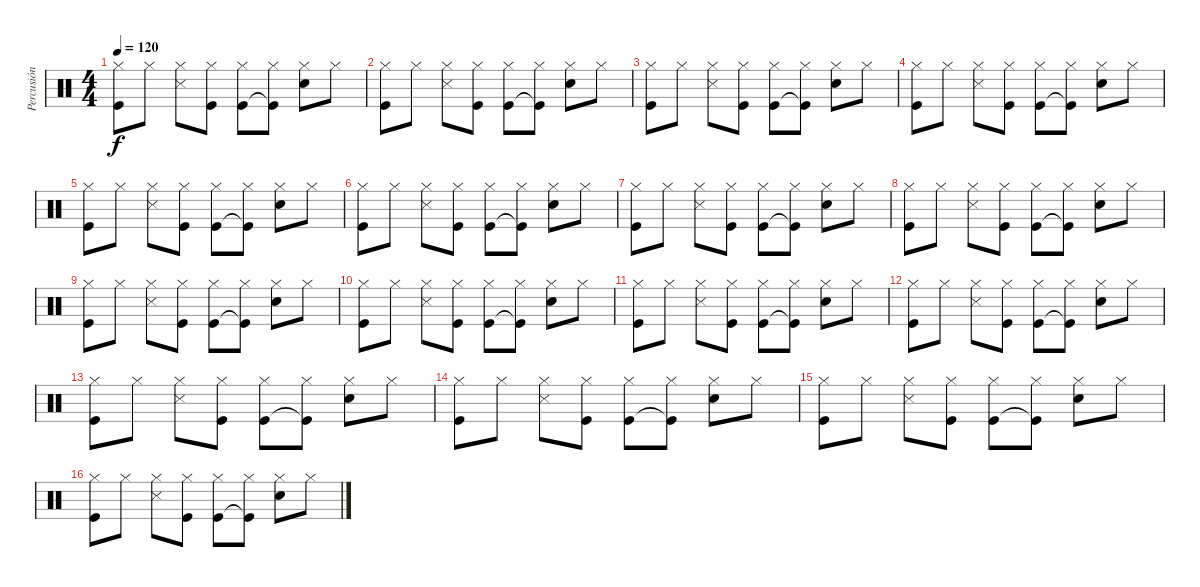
\track ("Percusión" "Percusión") {instrument percussion}
\staff {score}
\articulation defaults
\ts (4 4)
\tempo 120
\clef neutral
\ks c
("Hi-Hat (closed)" "Kick (hit)").8{dy f} "Hi-Hat (closed)".8 ("Hi-Hat (closed)" "Snare (side stick) 3").8 ("Hi-Hat (closed)" "Kick (hit)").8 ("Hi-Hat (closed)" "Kick (hit)").8 ("Hi-Hat (closed)" "Kick (hit)"{t}).8 ("Hi-Hat (closed)" "Snare (hit) 2").8 "Hi-Hat (closed)".8 |
("Hi-Hat (closed)" "Kick (hit)").8 "Hi-Hat (closed)".8 ("Hi-Hat (closed)" "Snare (side stick) 3").8 ("Hi-Hat (closed)" "Kick (hit)").8 ("Hi-Hat (closed)" "Kick (hit)").8 ("Hi-Hat (closed)" "Kick (hit)"{t}).8 ("Hi-Hat (closed)" "Snare (hit) 2").8 "Hi-Hat (closed)".8 |
("Hi-Hat (closed)" "Kick (hit)").8 "Hi-Hat (closed)".8 ("Hi-Hat (closed)" "Snare (side stick) 3").8 ("Hi-Hat (closed)" "Kick (hit)").8 ("Hi-Hat (closed)" "Kick (hit)").8 ("Hi-Hat (closed)" "Kick (hit)"{t}).8 ("Hi-Hat (closed)" "Snare (hit) 2").8 "Hi-Hat (closed)".8 |
("Hi-Hat (closed)" "Kick (hit)").8 "Hi-Hat (closed)".8 ("Hi-Hat (closed)" "Snare (side stick) 3").8 ("Hi-Hat (closed)" "Kick (hit)").8 ("Hi-Hat (closed)" "Kick (hit)").8 ("Hi-Hat (closed)" "Kick (hit)"{t}).8 ("Hi-Hat (closed)" "Snare (hit) 2").8 "Hi-Hat (closed)".8 |
("Hi-Hat (closed)" "Kick (hit)").8 "Hi-Hat (closed)".8 ("Hi-Hat (closed)" "Snare (side stick) 3").8 ("Hi-Hat (closed)" "Kick (hit)").8 ("Hi-Hat (closed)" "Kick (hit)").8 ("Hi-Hat (closed)" "Kick (hit)"{t}).8 ("Hi-Hat (closed)" "Snare (hit) 2").8 "Hi-Hat (closed)".8 |
("Hi-Hat (closed)" "Kick (hit)").8 "Hi-Hat (closed)".8 ("Hi-Hat (closed)" "Snare (side stick) 3").8 ("Hi-Hat (closed)" "Kick (hit)").8 ("Hi-Hat (closed)" "Kick (hit)").8 ("Hi-Hat (closed)" "Kick (hit)"{t}).8 ("Hi-Hat (closed)" "Snare (hit) 2").8 "Hi-Hat (closed)".8 |
("Hi-Hat (closed)" "Kick (hit)").8 "Hi-Hat (closed)".8 ("Hi-Hat (closed)" "Snare (side stick) 3").8 ("Hi-Hat (closed)" "Kick (hit)").8 ("Hi-Hat (closed)" "Kick (hit)").8 ("Hi-Hat (closed)" "Kick (hit)"{t}).8 ("Hi-Hat (closed)" "Snare (hit) 2").8 "Hi-Hat (closed)".8 |
("Hi-Hat (closed)" "Kick (hit)").8 "Hi-Hat (closed)".8 ("Hi-Hat (closed)" "Snare (side stick) 3").8 ("Hi-Hat (closed)" "Kick (hit)").8 ("Hi-Hat (closed)" "Kick (hit)").8 ("Hi-Hat (closed)" "Kick (hit)"{t}).8 ("Hi-Hat (closed)" "Snare (hit) 2").8 "Hi-Hat (closed)".8 |
("Hi-Hat (closed)" "Kick (hit)").8 "Hi-Hat (closed)".8 ("Hi-Hat (closed)" "Snare (side stick) 3").8 ("Hi-Hat (closed)" "Kick (hit)").8 ("Hi-Hat (closed)" "Kick (hit)").8 ("Hi-Hat (closed)" "Kick (hit)"{t}).8 ("Hi-Hat (closed)" "Snare (hit) 2").8 "Hi-Hat (closed)".8 |
("Hi-Hat (closed)" "Kick (hit)").8 "Hi-Hat (closed)".8 ("Hi-Hat (closed)" "Snare (side stick) 3").8 ("Hi-Hat (closed)" "Kick (hit)").8 ("Hi-Hat (closed)" "Kick (hit)").8 ("Hi-Hat (closed)" "Kick (hit)"{t}).8 ("Hi-Hat (closed)" "Snare (hit) 2").8 "Hi-Hat (closed)".8 |
("Hi-Hat (closed)" "Kick (hit)").8 "Hi-Hat (closed)".8 ("Hi-Hat (closed)" "Snare (side stick) 3").8 ("Hi-Hat (closed)" "Kick (hit)").8 ("Hi-Hat (closed)" "Kick (hit)").8 ("Hi-Hat (closed)" "Kick (hit)"{t}).8 ("Hi-Hat (closed)" "Snare (hit) 2").8 "Hi-Hat (closed)".8 |
("Hi-Hat (closed)" "Kick (hit)").8 "Hi-Hat (closed)".8 ("Hi-Hat (closed)" "Snare (side stick) 3").8 ("Hi-Hat (closed)" "Kick (hit)").8 ("Hi-Hat (closed)" "Kick (hit)").8 ("Hi-Hat (closed)" "Kick (hit)"{t}).8 ("Hi-Hat (closed)" "Snare (hit) 2").8 "Hi-Hat (closed)".8 |
("Hi-Hat (closed)" "Kick (hit)").8 "Hi-Hat (closed)".8 ("Hi-Hat (closed)" "Snare (side stick) 3").8 ("Hi-Hat (closed)" "Kick (hit)").8 ("Hi-Hat (closed)" "Kick (hit)").8 ("Hi-Hat (closed)" "Kick (hit)"{t}).8 ("Hi-Hat (closed)" "Snare (hit) 2").8 "Hi-Hat (closed)".8 |
("Hi-Hat (closed)" "Kick (hit)").8 "Hi-Hat (closed)".8 ("Hi-Hat (closed)" "Snare (side stick) 3").8 ("Hi-Hat (closed)" "Kick (hit)").8 ("Hi-Hat (closed)" "Kick (hit)").8 ("Hi-Hat (closed)" "Kick (hit)"{t}).8 ("Hi-Hat (closed)" "Snare (hit) 2").8 "Hi-Hat (closed)".8 |
("Hi-Hat (closed)" "Kick (hit)").8 "Hi-Hat (closed)".8 ("Hi-Hat (closed)" "Snare (side stick) 3").8 ("Hi-Hat (closed)" "Kick (hit)").8 ("Hi-Hat (closed)" "Kick (hit)").8 ("Hi-Hat (closed)" "Kick (hit)"{t}).8 ("Hi-Hat (closed)" "Snare (hit) 2").8 "Hi-Hat (closed)".8 |
("Hi-Hat (closed)" "Kick (hit)").8 "Hi-Hat (closed)".8 ("Hi-Hat (closed)" "Snare (side stick) 3").8 ("Hi-Hat (closed)" "Kick (hit)").8 ("Hi-Hat (closed)" "Kick (hit)").8 ("Hi-Hat (closed)" "Kick (hit)"{t}).8 ("Hi-Hat (closed)" "Snare (hit) 2").8 "Hi-Hat (closed)".8
